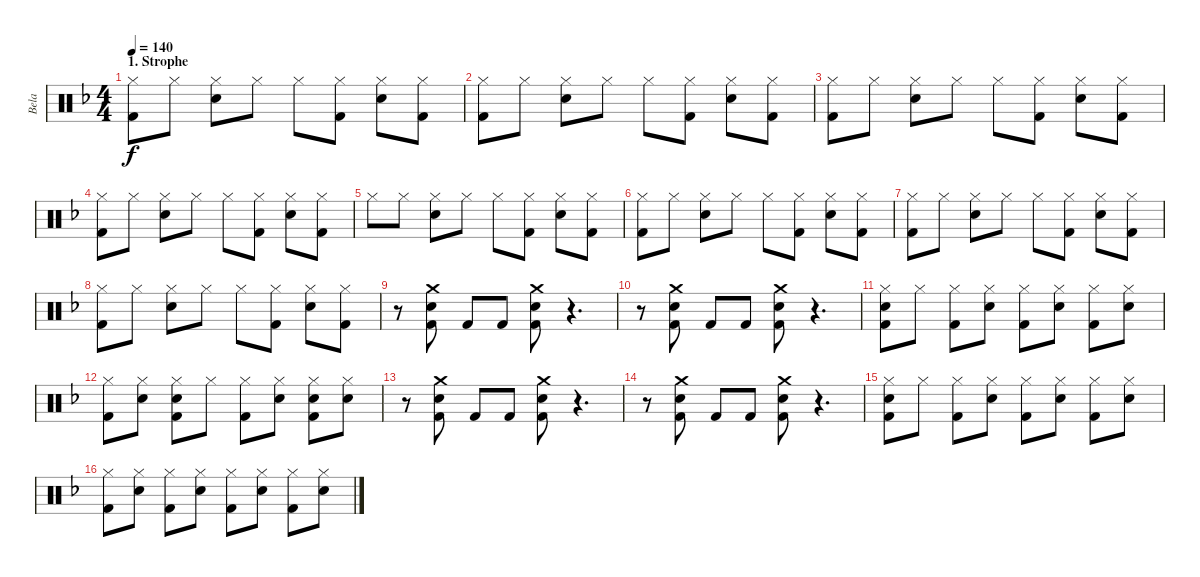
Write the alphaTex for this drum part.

\track ("Bela" "Bela") {instrument percussion}
\staff {score}
\articulation defaults
\ts (4 4)
\section ("" "1. Strophe")
\tempo 140
\clef neutral
\ks f
("Hi-Hat (closed)" "Kick (hit) 2").8{dy f} "Hi-Hat (closed)".8 ("Hi-Hat (closed)" "Snare (hit) 2").8 "Hi-Hat (closed)".8 "Hi-Hat (closed)".8 ("Hi-Hat (closed)" "Kick (hit) 2").8 ("Hi-Hat (closed)" "Snare (hit) 2").8 ("Hi-Hat (closed)" "Kick (hit) 2").8 |
("Hi-Hat (closed)" "Kick (hit) 2").8 "Hi-Hat (closed)".8 ("Hi-Hat (closed)" "Snare (hit) 2").8 "Hi-Hat (closed)".8 "Hi-Hat (closed)".8 ("Hi-Hat (closed)" "Kick (hit) 2").8 ("Hi-Hat (closed)" "Snare (hit) 2").8 ("Hi-Hat (closed)" "Kick (hit) 2").8 |
("Hi-Hat (closed)" "Kick (hit) 2").8 "Hi-Hat (closed)".8 ("Hi-Hat (closed)" "Snare (hit) 2").8 "Hi-Hat (closed)".8 "Hi-Hat (closed)".8 ("Hi-Hat (closed)" "Kick (hit) 2").8 ("Hi-Hat (closed)" "Snare (hit) 2").8 ("Hi-Hat (closed)" "Kick (hit) 2").8 |
("Hi-Hat (closed)" "Kick (hit) 2").8 "Hi-Hat (closed)".8 ("Hi-Hat (closed)" "Snare (hit) 2").8 "Hi-Hat (closed)".8 "Hi-Hat (closed)".8 ("Hi-Hat (closed)" "Kick (hit) 2").8 ("Hi-Hat (closed)" "Snare (hit) 2").8 ("Hi-Hat (closed)" "Kick (hit) 2").8 |
"Hi-Hat (closed)".8 "Hi-Hat (closed)".8 ("Hi-Hat (closed)" "Snare (hit) 2").8 "Hi-Hat (closed)".8 "Hi-Hat (closed)".8 ("Hi-Hat (closed)" "Kick (hit) 2").8 ("Hi-Hat (closed)" "Snare (hit) 2").8 ("Hi-Hat (closed)" "Kick (hit) 2").8 |
("Hi-Hat (closed)" "Kick (hit) 2").8 "Hi-Hat (closed)".8 ("Hi-Hat (closed)" "Snare (hit) 2").8 "Hi-Hat (closed)".8 "Hi-Hat (closed)".8 ("Hi-Hat (closed)" "Kick (hit) 2").8 ("Hi-Hat (closed)" "Snare (hit) 2").8 ("Hi-Hat (closed)" "Kick (hit) 2").8 |
("Hi-Hat (closed)" "Kick (hit) 2").8 "Hi-Hat (closed)".8 ("Hi-Hat (closed)" "Snare (hit) 2").8 "Hi-Hat (closed)".8 "Hi-Hat (closed)".8 ("Hi-Hat (closed)" "Kick (hit) 2").8 ("Hi-Hat (closed)" "Snare (hit) 2").8 ("Hi-Hat (closed)" "Kick (hit) 2").8 |
("Hi-Hat (closed)" "Kick (hit) 2").8 "Hi-Hat (closed)".8 ("Hi-Hat (closed)" "Snare (hit) 2").8 "Hi-Hat (closed)".8 "Hi-Hat (closed)".8 ("Hi-Hat (closed)" "Kick (hit) 2").8 ("Hi-Hat (closed)" "Snare (hit) 2").8 ("Hi-Hat (closed)" "Kick (hit) 2").8 |
r.8 ("Crash medium (hit)" "Snare (hit) 2" "Kick (hit) 2").8 "Kick (hit) 2".8 "Kick (hit) 2".8 ("Crash medium (hit)" "Snare (hit) 2" "Kick (hit) 2").8 r.4{d} |
r.8 ("Crash medium (hit)" "Snare (hit) 2" "Kick (hit) 2").8 "Kick (hit) 2".8 "Kick (hit) 2".8 ("Crash medium (hit)" "Snare (hit) 2" "Kick (hit) 2").8 r.4{d} |
("Hi-Hat (closed)" "Snare (hit) 2" "Kick (hit) 2").8 "Hi-Hat (closed)".8 ("Hi-Hat (closed)" "Kick (hit) 2").8 ("Hi-Hat (closed)" "Snare (hit) 2").8 ("Hi-Hat (closed)" "Kick (hit) 2").8 ("Hi-Hat (closed)" "Snare (hit) 2").8 ("Hi-Hat (closed)" "Kick (hit) 2").8 ("Hi-Hat (closed)" "Snare (hit) 2").8 |
("Hi-Hat (closed)" "Kick (hit) 2").8 ("Hi-Hat (closed)" "Snare (hit) 2").8 ("Hi-Hat (closed)" "Snare (hit) 2" "Kick (hit) 2").8 "Hi-Hat (closed)".8 ("Hi-Hat (closed)" "Kick (hit) 2").8 ("Hi-Hat (closed)" "Snare (hit) 2").8 ("Hi-Hat (closed)" "Snare (hit) 2" "Kick (hit) 2").8 ("Hi-Hat (closed)" "Snare (hit) 2").8 |
r.8 ("Crash medium (hit)" "Snare (hit) 2" "Kick (hit) 2").8 "Kick (hit) 2".8 "Kick (hit) 2".8 ("Crash medium (hit)" "Snare (hit) 2" "Kick (hit) 2").8 r.4{d} |
r.8 ("Crash medium (hit)" "Snare (hit) 2" "Kick (hit) 2").8 "Kick (hit) 2".8 "Kick (hit) 2".8 ("Crash medium (hit)" "Snare (hit) 2" "Kick (hit) 2").8 r.4{d} |
("Hi-Hat (closed)" "Snare (hit) 2" "Kick (hit) 2").8 "Hi-Hat (closed)".8 ("Hi-Hat (closed)" "Kick (hit) 2").8 ("Hi-Hat (closed)" "Snare (hit) 2").8 ("Hi-Hat (closed)" "Kick (hit) 2").8 ("Hi-Hat (closed)" "Snare (hit) 2").8 ("Hi-Hat (closed)" "Kick (hit) 2").8 ("Hi-Hat (closed)" "Snare (hit) 2").8 |
("Hi-Hat (closed)" "Kick (hit) 2").8 ("Hi-Hat (closed)" "Snare (hit) 2").8 ("Hi-Hat (closed)" "Kick (hit) 2").8 ("Hi-Hat (closed)" "Snare (hit) 2").8 ("Hi-Hat (closed)" "Kick (hit) 2").8 ("Hi-Hat (closed)" "Snare (hit) 2").8 ("Hi-Hat (closed)" "Kick (hit) 2").8 ("Hi-Hat (closed)" "Snare (hit) 2").8
